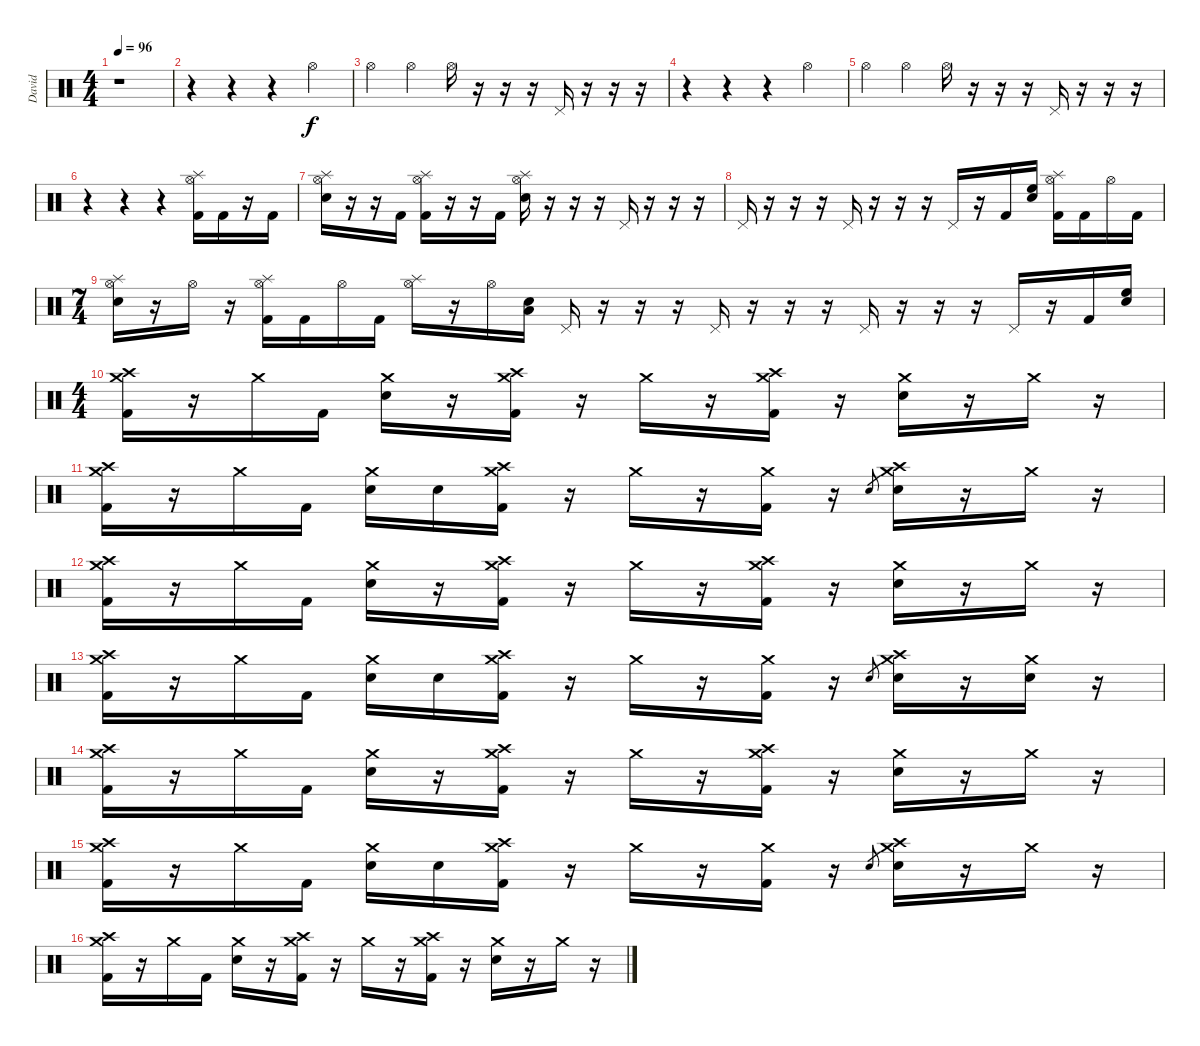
\track ("David" "David") {instrument percussion}
\staff {score}
\articulation defaults
\ts (4 4)
\tempo 96
\clef neutral
\ks c
r.1{dy f} |
r.4 r.4 r.4 "Hi-Hat (open)".4 |
"Hi-Hat (open)".4 "Hi-Hat (open)".4 "Hi-Hat (open)".16 r.16 r.16 r.16 "Pedal Hi-Hat (hit)".16 r.16 r.16 r.16 |
r.4 r.4 r.4 "Hi-Hat (open)".4 |
"Hi-Hat (open)".4 "Hi-Hat (open)".4 "Hi-Hat (open)".16 r.16 r.16 r.16 "Pedal Hi-Hat (hit)".16 r.16 r.16 r.16 |
r.4 r.4 r.4 ("Splash (hit)" "Hi-Hat (open)" "Kick (hit) 2").16 "Kick (hit) 2".16 r.16 "Kick (hit) 2".16 |
("Splash (hit)" "Hi-Hat (open)" "Electric Snare (hit)").16 r.16 r.16 "Kick (hit) 2".16 ("Splash (hit)" "Hi-Hat (open)" "Kick (hit) 2").16 r.16 r.16 "Kick (hit) 2".16 ("Splash (hit)" "Hi-Hat (open)" "Electric Snare (hit)").16 r.16 r.16 r.16 "Pedal Hi-Hat (hit)".16 r.16 r.16 r.16 |
"Pedal Hi-Hat (hit)".16 r.16 r.16 r.16 "Pedal Hi-Hat (hit)".16 r.16 r.16 r.16 "Pedal Hi-Hat (hit)".16 r.16 "Kick (hit) 2".16 ("Electric Snare (hit)" "High Floor Tom (hit)").16 ("Splash (hit)" "Hi-Hat (open)" "Kick (hit) 2").16 "Kick (hit) 2".16 "Hi-Hat (open)".16 "Kick (hit) 2".16 |
\ts (7 4)
("Splash (hit)" "Hi-Hat (open)" "Electric Snare (hit)").16 r.16 "Hi-Hat (open)".16 r.16 ("Splash (hit)" "Hi-Hat (open)" "Kick (hit) 2").16 "Kick (hit) 2".16 "Hi-Hat (open)".16 "Kick (hit) 2".16 ("Splash (hit)" "Hi-Hat (open)").16 r.16 "Hi-Hat (open)".16 ("Electric Snare (hit)" "Low Floor Tom (hit)").16 "Pedal Hi-Hat (hit)".16 r.16 r.16 r.16 "Pedal Hi-Hat (hit)".16 r.16 r.16 r.16 "Pedal Hi-Hat (hit)".16 r.16 r.16 r.16 "Pedal Hi-Hat (hit)".16 r.16 "Kick (hit) 2".16 ("Electric Snare (hit)" "High Floor Tom (hit)").16 |
\ts (4 4)
("Crash high (hit)" "Crash medium (hit)" "Kick (hit) 2").16 r.16 "Crash medium (hit)".16 "Kick (hit) 2".16 ("Crash medium (hit)" "Electric Snare (hit)").16 r.16 ("Crash high (hit)" "Crash medium (hit)" "Kick (hit) 2").16 r.16 "Crash medium (hit)".16 r.16 ("Crash high (hit)" "Crash medium (hit)" "Kick (hit) 2").16 r.16 ("Crash medium (hit)" "Electric Snare (hit)").16 r.16 "Crash medium (hit)".16 r.16 |
("Crash high (hit)" "Crash medium (hit)" "Kick (hit) 2").16 r.16 "Crash medium (hit)".16 "Kick (hit) 2".16 ("Crash medium (hit)" "Electric Snare (hit)").16 "Electric Snare (hit)".16 ("Crash high (hit)" "Crash medium (hit)" "Kick (hit) 2").16 r.16 "Crash medium (hit)".16 r.16 ("Crash medium (hit)" "Kick (hit) 2").16 r.16 "Electric Snare (hit)".8{gr} ("Crash high (hit)" "Crash medium (hit)" "Electric Snare (hit)").16 r.16 "Crash medium (hit)".16 r.16 |
("Crash high (hit)" "Crash medium (hit)" "Kick (hit) 2").16 r.16 "Crash medium (hit)".16 "Kick (hit) 2".16 ("Crash medium (hit)" "Electric Snare (hit)").16 r.16 ("Crash high (hit)" "Crash medium (hit)" "Kick (hit) 2").16 r.16 "Crash medium (hit)".16 r.16 ("Crash high (hit)" "Crash medium (hit)" "Kick (hit) 2").16 r.16 ("Crash medium (hit)" "Electric Snare (hit)").16 r.16 "Crash medium (hit)".16 r.16 |
("Crash high (hit)" "Crash medium (hit)" "Kick (hit) 2").16 r.16 "Crash medium (hit)".16 "Kick (hit) 2".16 ("Crash medium (hit)" "Electric Snare (hit)").16 "Electric Snare (hit)".16 ("Crash high (hit)" "Crash medium (hit)" "Kick (hit) 2").16 r.16 "Crash medium (hit)".16 r.16 ("Crash medium (hit)" "Kick (hit) 2").16 r.16 "Electric Snare (hit)".8{gr} ("Crash high (hit)" "Crash medium (hit)" "Electric Snare (hit)").16 r.16 ("Crash medium (hit)" "Electric Snare (hit)").16 r.16 |
("Crash high (hit)" "Crash medium (hit)" "Kick (hit) 2").16 r.16 "Crash medium (hit)".16 "Kick (hit) 2".16 ("Crash medium (hit)" "Electric Snare (hit)").16 r.16 ("Crash high (hit)" "Crash medium (hit)" "Kick (hit) 2").16 r.16 "Crash medium (hit)".16 r.16 ("Crash high (hit)" "Crash medium (hit)" "Kick (hit) 2").16 r.16 ("Crash medium (hit)" "Electric Snare (hit)").16 r.16 "Crash medium (hit)".16 r.16 |
("Crash high (hit)" "Crash medium (hit)" "Kick (hit) 2").16 r.16 "Crash medium (hit)".16 "Kick (hit) 2".16 ("Crash medium (hit)" "Electric Snare (hit)").16 "Electric Snare (hit)".16 ("Crash high (hit)" "Crash medium (hit)" "Kick (hit) 2").16 r.16 "Crash medium (hit)".16 r.16 ("Crash medium (hit)" "Kick (hit) 2").16 r.16 "Electric Snare (hit)".8{gr} ("Crash high (hit)" "Crash medium (hit)" "Electric Snare (hit)").16 r.16 "Crash medium (hit)".16 r.16 |
("Crash high (hit)" "Crash medium (hit)" "Kick (hit) 2").16 r.16 "Crash medium (hit)".16 "Kick (hit) 2".16 ("Crash medium (hit)" "Electric Snare (hit)").16 r.16 ("Crash high (hit)" "Crash medium (hit)" "Kick (hit) 2").16 r.16 "Crash medium (hit)".16 r.16 ("Crash high (hit)" "Crash medium (hit)" "Kick (hit) 2").16 r.16 ("Crash medium (hit)" "Electric Snare (hit)").16 r.16 "Crash medium (hit)".16 r.16
